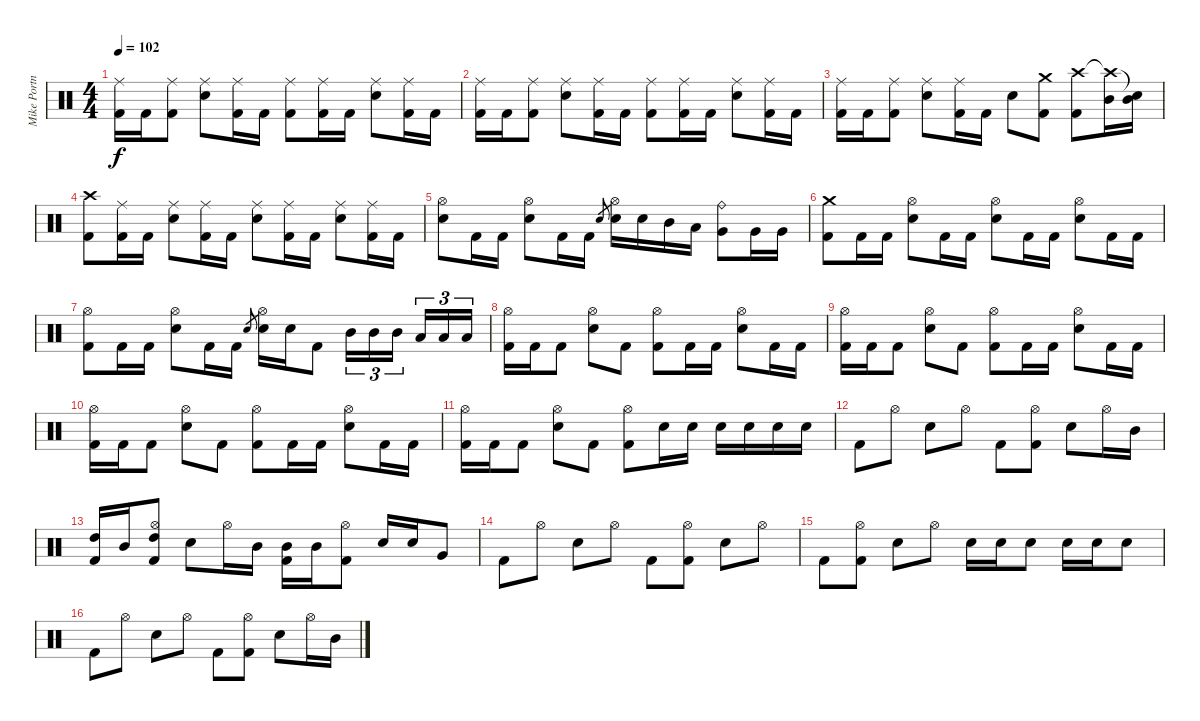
\track ("Mike Portnoy Drum " "Mike Portn") {instrument percussion}
\staff {score}
\articulation defaults
\ts (4 4)
\tempo 102
\clef neutral
\ks c
("Ride (middle)" "Kick (hit) 2").16{dy f} "Kick (hit) 2".16 ("Ride (middle)" "Kick (hit) 2").8 ("Ride (middle)" "Electric Snare (hit)").8 ("Ride (middle)" "Kick (hit) 2").16 "Kick (hit) 2".16 ("Ride (middle)" "Kick (hit) 2").8 ("Ride (middle)" "Kick (hit) 2").16 "Kick (hit) 2".16 ("Ride (middle)" "Electric Snare (hit)").8 ("Ride (middle)" "Kick (hit) 2").16 "Kick (hit) 2".16 |
("Ride (middle)" "Kick (hit) 2").16 "Kick (hit) 2".16 ("Ride (middle)" "Kick (hit) 2").8 ("Ride (middle)" "Electric Snare (hit)").8 ("Ride (middle)" "Kick (hit) 2").16 "Kick (hit) 2".16 ("Ride (middle)" "Kick (hit) 2").8 ("Ride (middle)" "Kick (hit) 2").16 "Kick (hit) 2".16 ("Ride (middle)" "Electric Snare (hit)").8 ("Ride (middle)" "Kick (hit) 2").16 "Kick (hit) 2".16 |
("Ride (middle)" "Kick (hit) 2").16 "Kick (hit) 2".16 ("Ride (middle)" "Kick (hit) 2").8 ("Ride (middle)" "Electric Snare (hit)").8 ("Ride (middle)" "Kick (hit) 2").16 "Kick (hit) 2".16 "Electric Snare (hit)".8 ("Crash medium (hit)" "Kick (hit) 2").8 ("Crash high (hit)" "Kick (hit) 2").8 ("Crash high (hit)"{t} "Mid Tom (hit)").16 ("Snare (hit)"{t} "Mid Tom (hit)").16 |
("Crash high (hit)" "Kick (hit) 2").8 ("Ride (middle)" "Kick (hit) 2").16 "Kick (hit) 2".16 ("Ride (middle)" "Electric Snare (hit)").8 ("Ride (middle)" "Kick (hit) 2").16 "Kick (hit) 2".16 ("Ride (middle)" "Electric Snare (hit)").8 ("Ride (middle)" "Kick (hit) 2").16 "Kick (hit) 2".16 ("Ride (middle)" "Electric Snare (hit)").8 ("Ride (middle)" "Kick (hit) 2").16 "Kick (hit) 2".16 |
("Hi-Hat (open)" "Electric Snare (hit)").8 "Kick (hit) 2".16 "Kick (hit) 2".16 ("Hi-Hat (open)" "Electric Snare (hit)").8 "Kick (hit) 2".16 "Kick (hit) 2".16 "Electric Snare (hit)".8{gr} ("Hi-Hat (open)" "Electric Snare (hit)").16 "Electric Snare (hit)".16 "Mid Tom (hit)".16 "Low Tom (hit)".16 ("Ride (bell)" "Very Low Tom (hit)").8 "Very Low Tom (hit)".16 "Very Low Tom (hit)".16 |
("Crash medium (hit)" "Kick (hit) 2").8 "Kick (hit) 2".16 "Kick (hit) 2".16 ("Hi-Hat (open)" "Electric Snare (hit)").8 "Kick (hit) 2".16 "Kick (hit) 2".16 ("Hi-Hat (open)" "Electric Snare (hit)").8 "Kick (hit) 2".16 "Kick (hit) 2".16 ("Hi-Hat (open)" "Electric Snare (hit)").8 "Kick (hit) 2".16 "Kick (hit) 2".16 |
("Hi-Hat (open)" "Kick (hit) 2").8 "Kick (hit) 2".16 "Kick (hit) 2".16 ("Hi-Hat (open)" "Electric Snare (hit)").8 "Kick (hit) 2".16 "Kick (hit) 2".16 "Electric Snare (hit)".8{gr} ("Hi-Hat (open)" "Electric Snare (hit)").16 "Electric Snare (hit)".16 "Kick (hit) 2".8 "Mid Tom (hit)".16{tu (3 2)} "Mid Tom (hit)".16{tu (3 2)} "Mid Tom (hit)".16{tu (3 2) beam splitsecondary} "Low Tom (hit)".16{tu (3 2)} "Low Tom (hit)".16{tu (3 2)} "Low Tom (hit)".16{tu (3 2)} |
("Hi-Hat (open)" "Kick (hit) 2").16 "Kick (hit) 2".16 "Kick (hit) 2".8 ("Hi-Hat (open)" "Electric Snare (hit)").8 "Kick (hit) 2".8 ("Hi-Hat (open)" "Kick (hit) 2").8 "Kick (hit) 2".16 "Kick (hit) 2".16 ("Hi-Hat (open)" "Electric Snare (hit)").8 "Kick (hit) 2".16 "Kick (hit) 2".16 |
("Hi-Hat (open)" "Kick (hit) 2").16 "Kick (hit) 2".16 "Kick (hit) 2".8 ("Hi-Hat (open)" "Electric Snare (hit)").8 "Kick (hit) 2".8 ("Hi-Hat (open)" "Kick (hit) 2").8 "Kick (hit) 2".16 "Kick (hit) 2".16 ("Hi-Hat (open)" "Electric Snare (hit)").8 "Kick (hit) 2".16 "Kick (hit) 2".16 |
("Hi-Hat (open)" "Kick (hit) 2").16 "Kick (hit) 2".16 "Kick (hit) 2".8 ("Hi-Hat (open)" "Electric Snare (hit)").8 "Kick (hit) 2".8 ("Hi-Hat (open)" "Kick (hit) 2").8 "Kick (hit) 2".16 "Kick (hit) 2".16 ("Hi-Hat (open)" "Electric Snare (hit)").8 "Kick (hit) 2".16 "Kick (hit) 2".16 |
("Hi-Hat (open)" "Kick (hit) 2").16 "Kick (hit) 2".16 "Kick (hit) 2".8 ("Hi-Hat (open)" "Electric Snare (hit)").8 "Kick (hit) 2".8 ("Hi-Hat (open)" "Kick (hit) 2").8 "Electric Snare (hit)".16 "Electric Snare (hit)".16 "Electric Snare (hit)".16 "Electric Snare (hit)".16 "Electric Snare (hit)".16 "Electric Snare (hit)".16 |
"Kick (hit) 2".8 "Hi-Hat (open)".8 "Electric Snare (hit)".8 "Hi-Hat (open)".8 "Kick (hit) 2".8 ("Hi-Hat (open)" "Kick (hit) 2").8 "Electric Snare (hit)".8 "Hi-Hat (open)".16 "Mid Tom (hit)".16 |
("High Tom (hit)" "Kick (hit) 2").16 "Mid Tom (hit)".16 ("Hi-Hat (open)" "High Tom (hit)" "Kick (hit) 2").8 "Electric Snare (hit)".8 "Hi-Hat (open)".16 "Mid Tom (hit)".16 ("Mid Tom (hit)" "Kick (hit) 2").16 "Mid Tom (hit)".16 ("Hi-Hat (open)" "Kick (hit) 2").8 "Electric Snare (hit)".16 "Electric Snare (hit)".16 "Very Low Tom (hit)".8 |
"Kick (hit) 2".8 "Hi-Hat (open)".8 "Electric Snare (hit)".8 "Hi-Hat (open)".8 "Kick (hit) 2".8 ("Hi-Hat (open)" "Kick (hit) 2").8 "Electric Snare (hit)".8 "Hi-Hat (open)".8 |
"Kick (hit) 2".8 ("Hi-Hat (open)" "Kick (hit) 2").8 "Electric Snare (hit)".8 "Hi-Hat (open)".8 "Electric Snare (hit)".16 "Electric Snare (hit)".16 "Electric Snare (hit)".8 "Electric Snare (hit)".16 "Electric Snare (hit)".16 "Electric Snare (hit)".8 |
"Kick (hit) 2".8 "Hi-Hat (open)".8 "Electric Snare (hit)".8 "Hi-Hat (open)".8 "Kick (hit) 2".8 ("Hi-Hat (open)" "Kick (hit) 2").8 "Electric Snare (hit)".8 "Hi-Hat (open)".16 "Mid Tom (hit)".16
